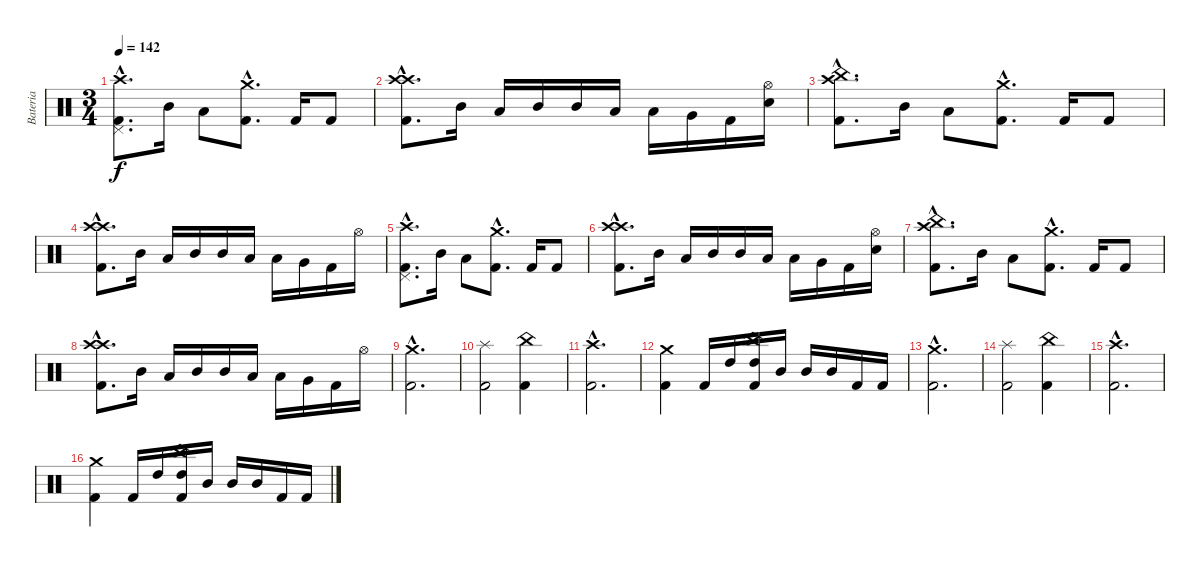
\track ("Bateria" "Bateria") {instrument percussion}
\staff {score}
\articulation defaults
\ts (3 4)
\tempo 142
\clef neutral
\ks c
("Crash high (hit)"{hac} "Pedal Hi-Hat (hit)"{hac} "Kick (hit) 2"{hac}).8{d dy f} "Mid Tom (hit)".16 "Low Tom (hit)".8 ("Crash medium (hit)"{hac} "Kick (hit) 2"{hac}).8{d} "Kick (hit) 2".16 "Kick (hit) 2".8 |
("Crash high (hit)"{hac} "Crash high (hit)"{hac} "Kick (hit) 2"{hac}).8{d} "Mid Tom (hit)".16 "Low Tom (hit)".16 "Mid Tom (hit)".16 "Mid Tom (hit)".16 "Low Tom (hit)".16 "Low Tom (hit)".16 "Very Low Tom (hit)".16 "Kick (hit) 2".16 ("Hi-Hat (open)" "Snare (hit) 2").16 |
("Crash high (hit)"{hac} "China (hit)"{hac} "Kick (hit) 2"{hac}).8{d} "Mid Tom (hit)".16 "Low Tom (hit)".8 ("Crash medium (hit)"{hac} "Kick (hit) 2"{hac}).8{d} "Kick (hit) 2".16 "Kick (hit) 2".8 |
("Crash high (hit)"{hac} "Crash high (hit)"{hac} "Kick (hit) 2"{hac}).8{d} "Mid Tom (hit)".16 "Low Tom (hit)".16 "Mid Tom (hit)".16 "Mid Tom (hit)".16 "Low Tom (hit)".16 "Low Tom (hit)".16 "Very Low Tom (hit)".16 "Kick (hit) 2".16 "Hi-Hat (open)".16 |
("Crash high (hit)"{hac} "Pedal Hi-Hat (hit)"{hac} "Kick (hit) 2"{hac}).8{d} "Mid Tom (hit)".16 "Low Tom (hit)".8 ("Crash medium (hit)"{hac} "Kick (hit) 2"{hac}).8{d} "Kick (hit) 2".16 "Kick (hit) 2".8 |
("Crash high (hit)"{hac} "Crash high (hit)"{hac} "Kick (hit) 2"{hac}).8{d} "Mid Tom (hit)".16 "Low Tom (hit)".16 "Mid Tom (hit)".16 "Mid Tom (hit)".16 "Low Tom (hit)".16 "Low Tom (hit)".16 "Very Low Tom (hit)".16 "Kick (hit) 2".16 ("Hi-Hat (open)" "Snare (hit) 2").16 |
("Crash high (hit)"{hac} "China (hit)"{hac} "Kick (hit) 2"{hac}).8{d} "Mid Tom (hit)".16 "Low Tom (hit)".8 ("Crash medium (hit)"{hac} "Kick (hit) 2"{hac}).8{d} "Kick (hit) 2".16 "Kick (hit) 2".8 |
("Crash high (hit)"{hac} "Crash high (hit)"{hac} "Kick (hit) 2"{hac}).8{d} "Mid Tom (hit)".16 "Low Tom (hit)".16 "Mid Tom (hit)".16 "Mid Tom (hit)".16 "Low Tom (hit)".16 "Low Tom (hit)".16 "Very Low Tom (hit)".16 "Kick (hit) 2".16 "Hi-Hat (open)".16 |
("Crash medium (hit)"{hac} "Kick (hit) 2"{hac}).2{d} |
("Splash (hit)" "Kick (hit) 2").2 ("China (hit)" "Kick (hit) 2").4 |
("Crash high (hit)"{hac} "Kick (hit) 2"{hac}).2{d} |
("Crash medium (hit)" "Kick (hit) 2").4 "Kick (hit) 2".16 "High Tom (hit)".16 ("China (hit)" "High Tom (hit)" "Kick (hit) 2").16 "Mid Tom (hit)".16 "Mid Tom (hit)".16 "Mid Tom (hit)".16 "Kick (hit) 2".16 "Kick (hit) 2".16 |
("Crash medium (hit)"{hac} "Kick (hit) 2"{hac}).2{d} |
("Splash (hit)" "Kick (hit) 2").2 ("China (hit)" "Kick (hit) 2").4 |
("Crash high (hit)"{hac} "Kick (hit) 2"{hac}).2{d} |
("Crash medium (hit)" "Kick (hit) 2").4 "Kick (hit) 2".16 "High Tom (hit)".16 ("China (hit)" "High Tom (hit)" "Kick (hit) 2").16 "Mid Tom (hit)".16 "Mid Tom (hit)".16 "Mid Tom (hit)".16 "Kick (hit) 2".16 "Kick (hit) 2".16
